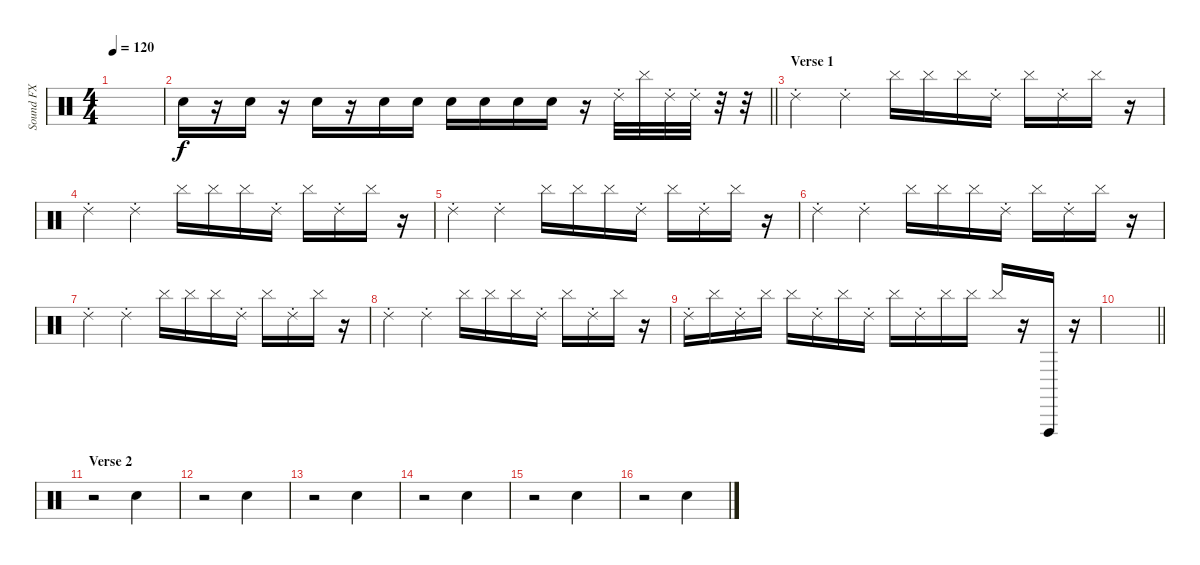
\track ("Sound FX" "Sound FX") {instrument percussion}
\staff {score}
\articulation defaults
\ts (4 4)
\tempo 120
\clef neutral
\ks c
|
\barLineRight lightlight "Hand Clap (hit)".16
r.16 "Hand Clap (hit)".16 r.16 "Hand Clap (hit)".16 r.16 "Hand Clap (hit)".16 "Hand Clap (hit)".16 "Hand Clap (hit)".16 "Hand Clap (hit)".16 "Hand Clap (hit)".16 "Hand Clap (hit)".16 r.16 "Ride (choke) 2".32 "Cymbal (hit)".32 "Ride (choke) 2".32 "Ride (choke) 2".32 r.32 r.32 |
\section ("" "Verse 1")
"Ride (choke) 2".4 "Ride (choke) 2".4 "Cymbal (hit)".16 "Cymbal (hit)".16 "Cymbal (hit)".16 "Ride (choke) 2".16 "Cymbal (hit)".16 "Ride (choke) 2".16 "Cymbal (hit)".16 r.16 |
"Ride (choke) 2".4 "Ride (choke) 2".4 "Cymbal (hit)".16 "Cymbal (hit)".16 "Cymbal (hit)".16 "Ride (choke) 2".16 "Cymbal (hit)".16 "Ride (choke) 2".16 "Cymbal (hit)".16 r.16 |
"Ride (choke) 2".4 "Ride (choke) 2".4 "Cymbal (hit)".16 "Cymbal (hit)".16 "Cymbal (hit)".16 "Ride (choke) 2".16 "Cymbal (hit)".16 "Ride (choke) 2".16 "Cymbal (hit)".16 r.16 |
"Ride (choke) 2".4 "Ride (choke) 2".4 "Cymbal (hit)".16 "Cymbal (hit)".16 "Cymbal (hit)".16 "Ride (choke) 2".16 "Cymbal (hit)".16 "Ride (choke) 2".16 "Cymbal (hit)".16 r.16 |
"Ride (choke) 2".4 "Ride (choke) 2".4 "Cymbal (hit)".16 "Cymbal (hit)".16 "Cymbal (hit)".16 "Ride (choke) 2".16 "Cymbal (hit)".16 "Ride (choke) 2".16 "Cymbal (hit)".16 r.16 |
"Ride (choke) 2".4 "Ride (choke) 2".4 "Cymbal (hit)".16 "Cymbal (hit)".16 "Cymbal (hit)".16 "Ride (choke) 2".16 "Cymbal (hit)".16 "Ride (choke) 2".16 "Cymbal (hit)".16 r.16 |
"Ride (choke) 2".16 "Cymbal (hit)".16 "Ride (choke) 2".16 "Cymbal (hit)".16 "Cymbal (hit)".16 "Ride (choke) 2".16 "Cymbal (hit)".16 "Ride (choke) 2".16 "Cymbal (hit)".16 "Ride (choke) 2".16 "Cymbal (hit)".16 "Cymbal (hit)".16 "Cymbal (hit)".16 r.16 "Vibraslap (hit)".16 r.16 |
\barLineRight lightlight
|
\section ("" "Verse 2")
r.2 "Metronome (bell)".2 |
r.2 "Metronome (bell)".2 |
r.2 "Metronome (bell)".2 |
r.2 "Metronome (bell)".2 |
r.2 "Metronome (bell)".2 |
r.2 "Metronome (bell)".2
